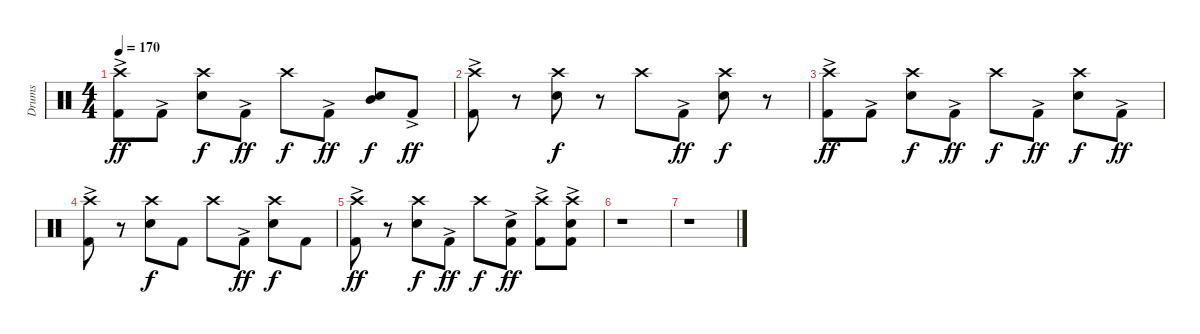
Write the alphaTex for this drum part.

\track ("Drums" "Drums") {instrument percussion}
\staff {score}
\articulation defaults
\ts (4 4)
\tempo 170
\clef neutral
\ks c
("Crash high (hit)" "Kick (hit) 2"{ac}).8{dy ff} "Kick (hit) 2"{ac}.8 ("Crash high (hit)" "Electric Snare (hit)").8{dy f} "Kick (hit) 2"{ac}.8{dy ff} "Crash high (hit)".8{dy f} "Kick (hit) 2"{ac}.8{dy ff} ("Mid Tom (hit)" "Electric Snare (hit)").8{dy f} "Kick (hit) 2"{ac}.8{dy ff} |
("Crash high (hit)" "Kick (hit) 2"{ac}).8 r.8 ("Crash high (hit)" "Electric Snare (hit)").8{dy f} r.8 "Crash high (hit)".8 "Kick (hit) 2"{ac}.8{dy ff} ("Crash high (hit)" "Electric Snare (hit)").8{dy f} r.8 |
("Crash high (hit)" "Kick (hit) 2"{ac}).8{dy ff} "Kick (hit) 2"{ac}.8 ("Crash high (hit)" "Electric Snare (hit)").8{dy f} "Kick (hit) 2"{ac}.8{dy ff} "Crash high (hit)".8{dy f} "Kick (hit) 2"{ac}.8{dy ff} ("Crash high (hit)" "Electric Snare (hit)").8{dy f} "Kick (hit) 2"{ac}.8{dy ff} |
("Crash high (hit)" "Kick (hit) 2"{ac}).8 r.8 ("Crash high (hit)" "Electric Snare (hit)").8{dy f} "Kick (hit) 2".8 "Crash high (hit)".8 "Kick (hit) 2"{ac}.8{dy ff} ("Crash high (hit)" "Electric Snare (hit)").8{dy f} "Kick (hit) 2".8 |
("Crash high (hit)" "Kick (hit) 2"{ac}).8{dy ff} r.8 ("Crash high (hit)" "Electric Snare (hit)").8{dy f} "Kick (hit) 2"{ac}.8{dy ff} "Crash high (hit)".8{dy f} ("Electric Snare (hit)" "Kick (hit) 2"{ac}).8{dy ff} ("Crash high (hit)" "Kick (hit) 2"{ac}).8 ("Crash high (hit)"{ac} "Electric Snare (hit)" "Kick (hit) 2"{ac}).8 |
r.1{volume 0} |
r.1
